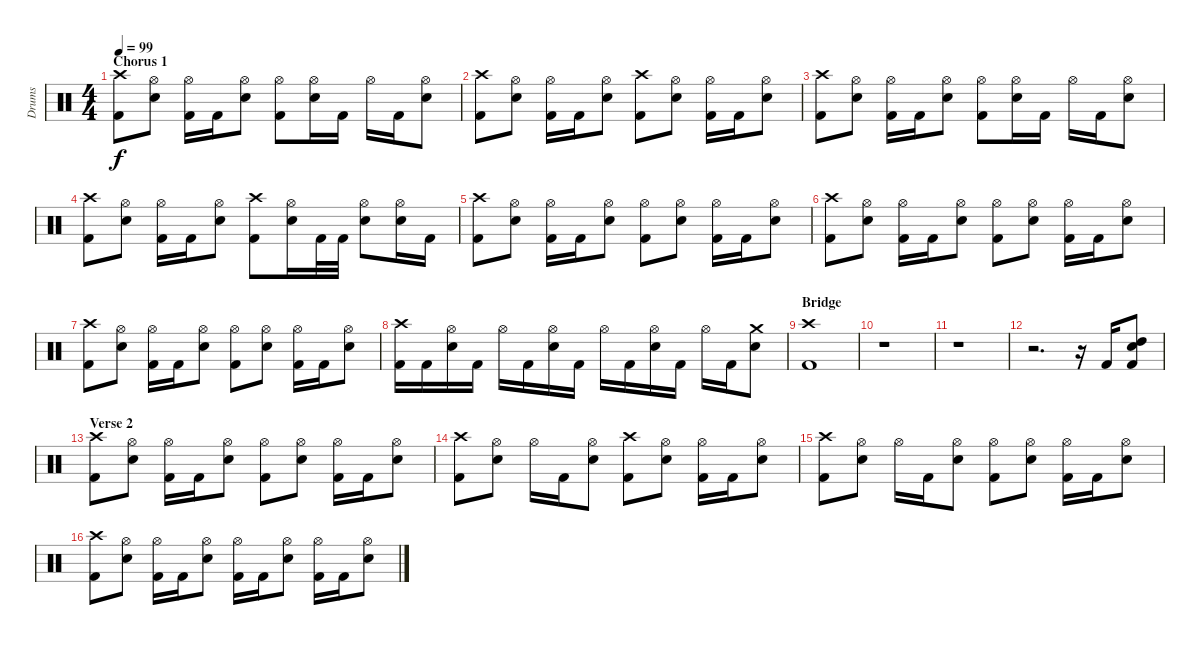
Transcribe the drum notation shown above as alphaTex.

\track ("Drums" "Drums") {instrument percussion}
\staff {score}
\articulation defaults
\ts (4 4)
\section ("" "Chorus 1")
\tempo 99
\clef neutral
\ks c
("Kick (hit) 2" "Crash high (hit)").8{dy f} ("Electric Snare (hit)" "Hi-Hat (open)").8 ("Kick (hit) 2" "Hi-Hat (open)").16 "Kick (hit) 2".16 ("Electric Snare (hit)" "Hi-Hat (open)").8 ("Kick (hit) 2" "Hi-Hat (open)").8 ("Electric Snare (hit)" "Hi-Hat (open)").16 "Kick (hit) 2".16 "Hi-Hat (open)".16 "Kick (hit) 2".16 ("Electric Snare (hit)" "Hi-Hat (open)").8 |
("Kick (hit) 2" "Crash high (hit)").8 ("Electric Snare (hit)" "Hi-Hat (open)").8 ("Kick (hit) 2" "Hi-Hat (open)").16 "Kick (hit) 2".16 ("Electric Snare (hit)" "Hi-Hat (open)").8 ("Kick (hit) 2" "Crash high (hit)").8 ("Electric Snare (hit)" "Hi-Hat (open)").8 ("Kick (hit) 2" "Hi-Hat (open)").16 "Kick (hit) 2".16 ("Electric Snare (hit)" "Hi-Hat (open)").8 |
("Kick (hit) 2" "Crash high (hit)").8 ("Electric Snare (hit)" "Hi-Hat (open)").8 ("Kick (hit) 2" "Hi-Hat (open)").16 "Kick (hit) 2".16 ("Electric Snare (hit)" "Hi-Hat (open)").8 ("Kick (hit) 2" "Hi-Hat (open)").8 ("Electric Snare (hit)" "Hi-Hat (open)").16 "Kick (hit) 2".16 "Hi-Hat (open)".16 "Kick (hit) 2".16 ("Electric Snare (hit)" "Hi-Hat (open)").8 |
("Kick (hit) 2" "Crash high (hit)").8 ("Electric Snare (hit)" "Hi-Hat (open)").8 ("Kick (hit) 2" "Hi-Hat (open)").16 "Kick (hit) 2".16 ("Electric Snare (hit)" "Hi-Hat (open)").8 ("Kick (hit) 2" "Crash high (hit)").8 ("Electric Snare (hit)" "Hi-Hat (open)").16 "Kick (hit) 2".32 "Kick (hit) 2".32 ("Electric Snare (hit)" "Hi-Hat (open)").8 ("Electric Snare (hit)" "Hi-Hat (open)").16 "Kick (hit) 2".16 |
("Kick (hit) 2" "Crash high (hit)").8 ("Electric Snare (hit)" "Hi-Hat (open)").8 ("Kick (hit) 2" "Hi-Hat (open)").16 "Kick (hit) 2".16 ("Electric Snare (hit)" "Hi-Hat (open)").8 ("Kick (hit) 2" "Hi-Hat (open)").8 ("Electric Snare (hit)" "Hi-Hat (open)").8 ("Kick (hit) 2" "Hi-Hat (open)").16 "Kick (hit) 2".16 ("Electric Snare (hit)" "Hi-Hat (open)").8 |
("Kick (hit) 2" "Crash high (hit)").8 ("Electric Snare (hit)" "Hi-Hat (open)").8 ("Kick (hit) 2" "Hi-Hat (open)").16 "Kick (hit) 2".16 ("Electric Snare (hit)" "Hi-Hat (open)").8 ("Kick (hit) 2" "Hi-Hat (open)").8 ("Electric Snare (hit)" "Hi-Hat (open)").8 ("Kick (hit) 2" "Hi-Hat (open)").16 "Kick (hit) 2".16 ("Electric Snare (hit)" "Hi-Hat (open)").8 |
("Kick (hit) 2" "Crash high (hit)").8 ("Electric Snare (hit)" "Hi-Hat (open)").8 ("Kick (hit) 2" "Hi-Hat (open)").16 "Kick (hit) 2".16 ("Electric Snare (hit)" "Hi-Hat (open)").8 ("Kick (hit) 2" "Hi-Hat (open)").8 ("Electric Snare (hit)" "Hi-Hat (open)").8 ("Kick (hit) 2" "Hi-Hat (open)").16 "Kick (hit) 2".16 ("Electric Snare (hit)" "Hi-Hat (open)").8 |
("Kick (hit) 2" "Crash high (hit)").16 "Kick (hit) 2".16 ("Electric Snare (hit)" "Hi-Hat (open)").16 "Kick (hit) 2".16 "Hi-Hat (open)".16 "Kick (hit) 2".16 ("Electric Snare (hit)" "Hi-Hat (open)").16 "Kick (hit) 2".16 "Hi-Hat (open)".16 "Kick (hit) 2".16 ("Electric Snare (hit)" "Hi-Hat (open)").16 "Kick (hit) 2".16 "Hi-Hat (open)".16 "Kick (hit) 2".16 ("Electric Snare (hit)" "Crash medium (hit)").8 |
\section ("" "Bridge")
("Kick (hit) 2" "Crash high (hit)").1 |
r.1 |
r.1 |
r.2{d} r.16 "Kick (hit) 2".16 ("High Tom (hit)" "Kick (hit) 2" "Snare (hit) 2").8 |
\section ("" "Verse 2")
("Kick (hit) 2" "Crash high (hit)").8 ("Electric Snare (hit)" "Hi-Hat (open)").8 ("Kick (hit) 2" "Hi-Hat (open)").16 "Kick (hit) 2".16 ("Electric Snare (hit)" "Hi-Hat (open)").8 ("Kick (hit) 2" "Hi-Hat (open)").8 ("Electric Snare (hit)" "Hi-Hat (open)").8 ("Kick (hit) 2" "Hi-Hat (open)").16 "Kick (hit) 2".16 ("Electric Snare (hit)" "Hi-Hat (open)").8 |
("Kick (hit) 2" "Crash high (hit)").8 ("Electric Snare (hit)" "Hi-Hat (open)").8 "Hi-Hat (open)".16 "Kick (hit) 2".16 ("Electric Snare (hit)" "Hi-Hat (open)").8 ("Kick (hit) 2" "Crash high (hit)").8 ("Electric Snare (hit)" "Hi-Hat (open)").8 ("Kick (hit) 2" "Hi-Hat (open)").16 "Kick (hit) 2".16 ("Electric Snare (hit)" "Hi-Hat (open)").8 |
("Kick (hit) 2" "Crash high (hit)").8 ("Electric Snare (hit)" "Hi-Hat (open)").8 "Hi-Hat (open)".16 "Kick (hit) 2".16 ("Electric Snare (hit)" "Hi-Hat (open)").8 ("Kick (hit) 2" "Hi-Hat (open)").8 ("Electric Snare (hit)" "Hi-Hat (open)").8 ("Kick (hit) 2" "Hi-Hat (open)").16 "Kick (hit) 2".16 ("Electric Snare (hit)" "Hi-Hat (open)").8 |
("Kick (hit) 2" "Crash high (hit)").8 ("Electric Snare (hit)" "Hi-Hat (open)").8 ("Kick (hit) 2" "Hi-Hat (open)").16 "Kick (hit) 2".16 ("Electric Snare (hit)" "Hi-Hat (open)").8 ("Kick (hit) 2" "Hi-Hat (open)").16 "Kick (hit) 2".16 ("Electric Snare (hit)" "Hi-Hat (open)").8 ("Kick (hit) 2" "Hi-Hat (open)").16 "Kick (hit) 2".16 ("Electric Snare (hit)" "Hi-Hat (open)").8
